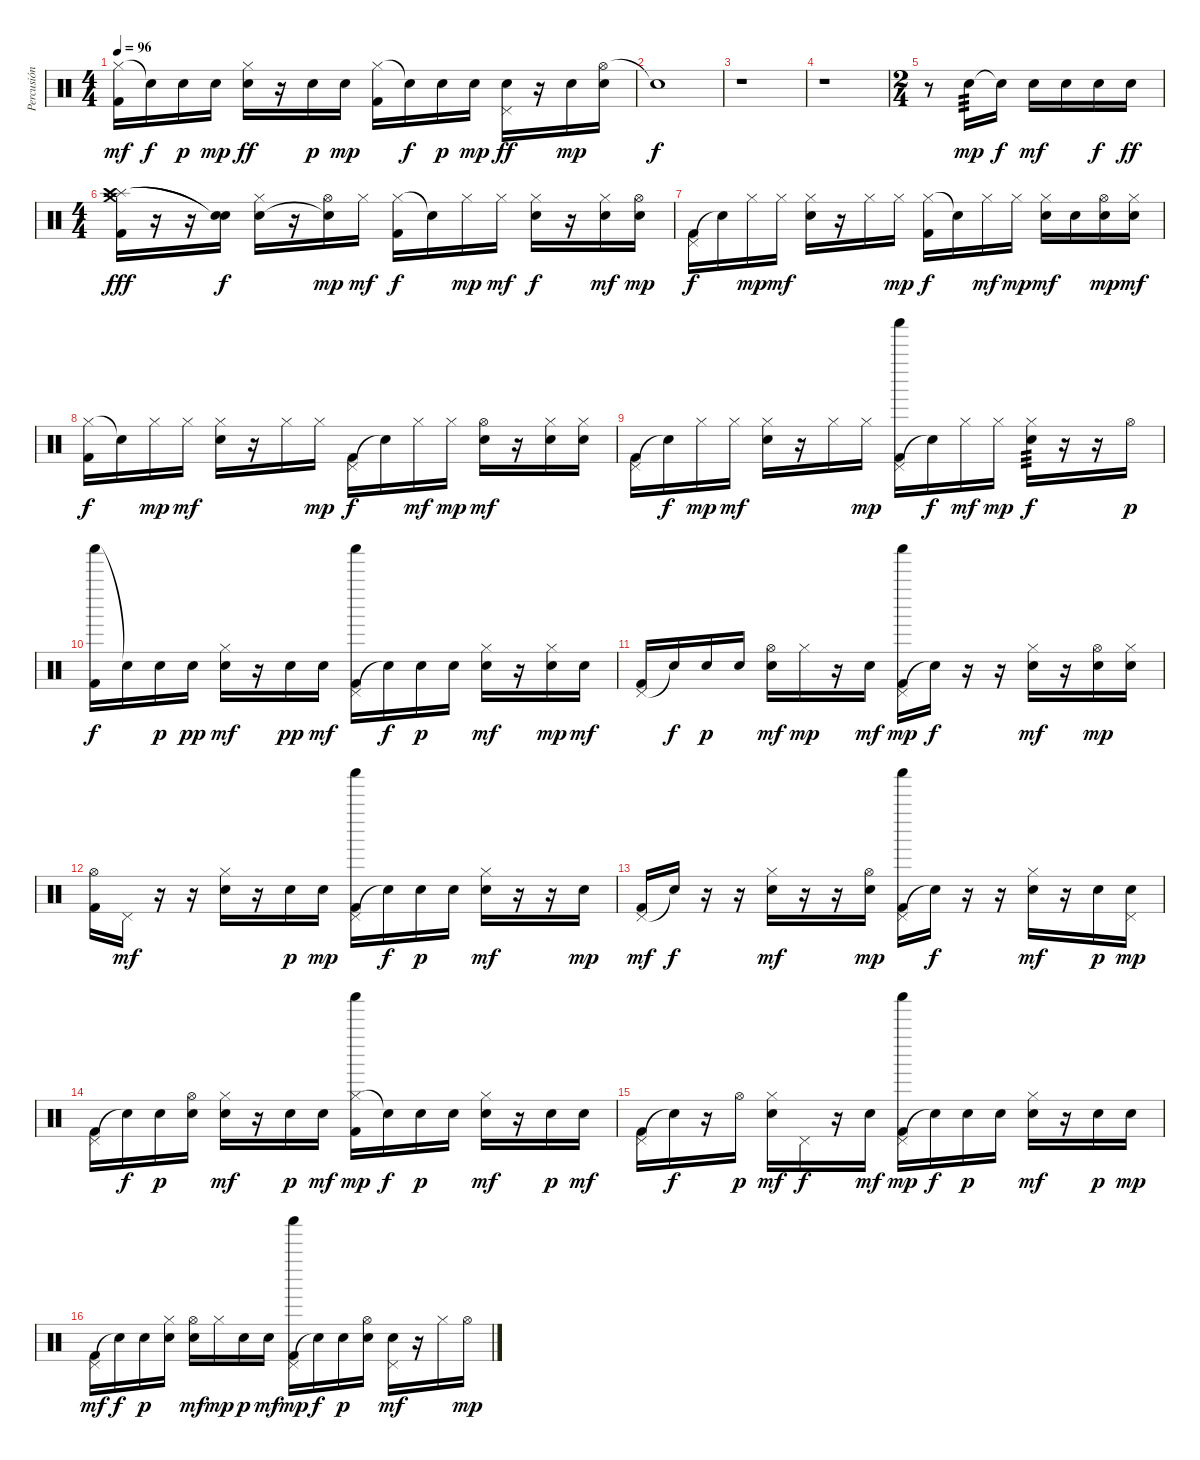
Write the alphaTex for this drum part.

\track ("Percusión" "Percusión") {instrument percussion}
\staff {score}
\articulation defaults
\ts (4 4)
\tempo 96
\clef neutral
\ks c
("Hi-Hat (closed)" "Kick (hit) 2").16{dy mf} "Snare (hit)"{t}.16{dy f} "Snare (hit) 2".16{dy p} "Snare (hit) 2".16{dy mp} ("Hi-Hat (closed)" "Snare (hit) 2").16{dy ff} r.16 "Snare (hit) 2".16{dy p} "Snare (hit) 2".16{dy mp} ("Hi-Hat (closed)" "Kick (hit) 2").16 "Snare (hit)"{t}.16{dy f} "Snare (hit) 2".16{dy p} "Snare (hit) 2".16{dy mp} ("Pedal Hi-Hat (hit)" "Snare (hit) 2").16{dy ff} r.16 "Snare (hit) 2".16{dy mp} ("Hi-Hat (open)" "Snare (hit) 2").16 |
"Snare (hit)"{t}.1{dy f} |
r.1 |
r.1 |
\ts (2 4)
r.8 "Snare (hit) 2".16{tp 3 dy mp} "Snare (hit) 2"{t}.16{dy f} "Snare (hit) 2".16{dy mf} "Snare (hit) 2".16 "Snare (hit) 2".16{dy f} "Snare (hit) 2".16{dy ff} |
\ts (4 4)
("Splash (hit)" "Crash high (hit)" "Crash medium (hit)" "Kick (hit) 2").16{dy fff} r.16 r.16 ("Snare (hit)"{t} "Snare (hit)"{t}).16{dy f} ("Hi-Hat (closed)" "Snare (hit) 2").16 r.16 ("Hi-Hat (open)" "Snare (hit)"{t}).16{dy mp} "Hi-Hat (closed)".16{dy mf} ("Hi-Hat (closed)" "Kick (hit) 2").16{dy f} "Snare (hit)"{t}.16 "Hi-Hat (closed)".16{dy mp} "Hi-Hat (closed)".16{dy mf} ("Hi-Hat (closed)" "Snare (hit) 2").16{dy f} r.16 ("Hi-Hat (closed)" "Snare (hit) 2").16{dy mf} ("Hi-Hat (open)" "Snare (hit) 2").16{dy mp} |
("Pedal Hi-Hat (hit)" "Kick (hit) 2").16{dy f} "Snare (hit)"{t}.16 "Hi-Hat (closed)".16{dy mp} "Hi-Hat (closed)".16{dy mf} ("Hi-Hat (closed)" "Snare (hit) 2").16 r.16 "Hi-Hat (closed)".16 "Hi-Hat (closed)".16{dy mp} ("Hi-Hat (closed)" "Kick (hit) 2").16{dy f} "Snare (hit)"{t}.16 "Hi-Hat (closed)".16{dy mf} "Hi-Hat (closed)".16{dy mp} ("Hi-Hat (closed)" "Snare (hit) 2").16{dy mf} "Snare (hit) 2".16 ("Hi-Hat (open)" "Snare (hit) 2").16{dy mp} ("Hi-Hat (closed)" "Snare (hit) 2").16{dy mf} |
("Hi-Hat (closed)" "Kick (hit) 2").16{dy f} "Snare (hit)"{t}.16 "Hi-Hat (closed)".16{dy mp} "Hi-Hat (closed)".16{dy mf} ("Hi-Hat (closed)" "Snare (hit) 2").16 r.16 "Hi-Hat (closed)".16 "Hi-Hat (closed)".16{dy mp} ("Pedal Hi-Hat (hit)" "Kick (hit) 2").16{dy f} "Snare (hit)"{t}.16 "Hi-Hat (closed)".16{dy mf} "Hi-Hat (closed)".16{dy mp} ("Hi-Hat (open)" "Snare (hit) 2").16{dy mf} r.16 ("Hi-Hat (closed)" "Snare (hit) 2").16 ("Hi-Hat (closed)" "Snare (hit) 2").16 |
("Pedal Hi-Hat (hit)" "Kick (hit) 2").16 "Snare (hit)"{t}.16{dy f} "Hi-Hat (closed)".16{dy mp} "Hi-Hat (closed)".16{dy mf} ("Hi-Hat (closed)" "Snare (hit) 2").16 r.16 "Hi-Hat (closed)".16 "Hi-Hat (closed)".16{dy mp} ("Pedal Hi-Hat (hit)" "Shaker (hit)" "Kick (hit) 2").16 "Snare (hit)"{t}.16{dy f} "Hi-Hat (closed)".16{dy mf} "Hi-Hat (closed)".16{dy mp} ("Hi-Hat (closed)" "Snare (hit) 2").16{tp 3 dy f} r.16 r.16 "Hi-Hat (open)".16{dy p} |
("Shaker (hit)" "Kick (hit) 2").16{dy f} "Snare (hit)"{t}.16 "Snare (hit) 2".16{dy p} "Snare (hit) 2".16{dy pp} ("Hi-Hat (closed)" "Snare (hit) 2").16{dy mf} r.16 "Snare (hit) 2".16{dy pp} "Snare (hit) 2".16{dy mf} ("Pedal Hi-Hat (hit)" "Shaker (hit)" "Kick (hit) 2").16 "Snare (hit)"{t}.16{dy f} "Snare (hit) 2".16{dy p} "Snare (hit) 2".16 ("Hi-Hat (closed)" "Snare (hit) 2").16{dy mf} r.16 ("Hi-Hat (closed)" "Snare (hit) 2").16{dy mp} "Snare (hit) 2".16{dy mf} |
("Pedal Hi-Hat (hit)" "Kick (hit) 2").16 "Snare (hit)"{t}.16{dy f} "Snare (hit) 2".16{dy p} "Snare (hit) 2".16 ("Hi-Hat (open)" "Snare (hit) 2").16{dy mf} "Hi-Hat (closed)".16{dy mp} r.16 "Snare (hit) 2".16{dy mf} ("Pedal Hi-Hat (hit)" "Shaker (hit)" "Kick (hit) 2").16{dy mp} "Snare (hit)"{t}.16{dy f} r.16 r.16 ("Hi-Hat (closed)" "Snare (hit) 2").16{dy mf} r.16 ("Hi-Hat (open)" "Snare (hit) 2").16{dy mp} ("Hi-Hat (closed)" "Snare (hit) 2").16 |
("Hi-Hat (open)" "Kick (hit) 2").16 "Pedal Hi-Hat (hit)".16{dy mf} r.16 r.16 ("Hi-Hat (closed)" "Snare (hit) 2").16 r.16 "Snare (hit) 2".16{dy p} "Snare (hit) 2".16{dy mp} ("Pedal Hi-Hat (hit)" "Shaker (hit)" "Kick (hit) 2").16 "Snare (hit)"{t}.16{dy f} "Snare (hit) 2".16{dy p} "Snare (hit) 2".16 ("Hi-Hat (closed)" "Snare (hit) 2").16{dy mf} r.16 r.16 "Snare (hit) 2".16{dy mp} |
("Pedal Hi-Hat (hit)" "Kick (hit) 2").16{dy mf} "Snare (hit)"{t}.16{dy f} r.16 r.16 ("Hi-Hat (closed)" "Snare (hit) 2").16{dy mf} r.16 r.16 ("Hi-Hat (open)" "Snare (hit) 2").16{dy mp} ("Pedal Hi-Hat (hit)" "Shaker (hit)" "Kick (hit) 2").16 "Snare (hit)"{t}.16{dy f} r.16 r.16 ("Hi-Hat (closed)" "Snare (hit) 2").16{dy mf} r.16 "Snare (hit) 2".16{dy p} ("Pedal Hi-Hat (hit)" "Snare (hit) 2").16{dy mp} |
("Pedal Hi-Hat (hit)" "Kick (hit) 2").16 "Snare (hit)"{t}.16{dy f} "Snare (hit) 2".16{dy p} ("Hi-Hat (open)" "Snare (hit) 2").16 ("Hi-Hat (closed)" "Snare (hit) 2").16{dy mf} r.16 "Snare (hit) 2".16{dy p} "Snare (hit) 2".16{dy mf} ("Hi-Hat (closed)" "Shaker (hit)" "Kick (hit) 2").16{dy mp} "Snare (hit)"{t}.16{dy f} "Snare (hit) 2".16{dy p} "Snare (hit) 2".16 ("Hi-Hat (closed)" "Snare (hit) 2").16{dy mf} r.16 "Snare (hit) 2".16{dy p} "Snare (hit) 2".16{dy mf} |
("Pedal Hi-Hat (hit)" "Kick (hit) 2").16 "Snare (hit)"{t}.16{dy f} r.16 "Hi-Hat (open)".16{dy p} ("Hi-Hat (closed)" "Snare (hit) 2").16{dy mf} "Pedal Hi-Hat (hit)".16{dy f} r.16 "Snare (hit) 2".16{dy mf} ("Pedal Hi-Hat (hit)" "Shaker (hit)" "Kick (hit) 2").16{dy mp} "Snare (hit)"{t}.16{dy f} "Snare (hit) 2".16{dy p} "Snare (hit) 2".16 ("Hi-Hat (closed)" "Snare (hit) 2").16{dy mf} r.16 "Snare (hit) 2".16{dy p} "Snare (hit) 2".16{dy mp} |
("Pedal Hi-Hat (hit)" "Kick (hit) 2").16{dy mf} "Snare (hit)"{t}.16{dy f} "Snare (hit) 2".16{dy p} ("Hi-Hat (closed)" "Snare (hit) 2").16 ("Hi-Hat (open)" "Snare (hit) 2").16{dy mf} "Hi-Hat (closed)".16{dy mp} "Snare (hit) 2".16{dy p} "Snare (hit) 2".16{dy mf} ("Pedal Hi-Hat (hit)" "Shaker (hit)" "Kick (hit) 2").16{dy mp} "Snare (hit)"{t}.16{dy f} "Snare (hit) 2".16{dy p} ("Hi-Hat (open)" "Snare (hit) 2").16 ("Pedal Hi-Hat (hit)" "Snare (hit) 2").16{dy mf} r.16 "Hi-Hat (closed)".16 "Hi-Hat (open)".16{dy mp}
